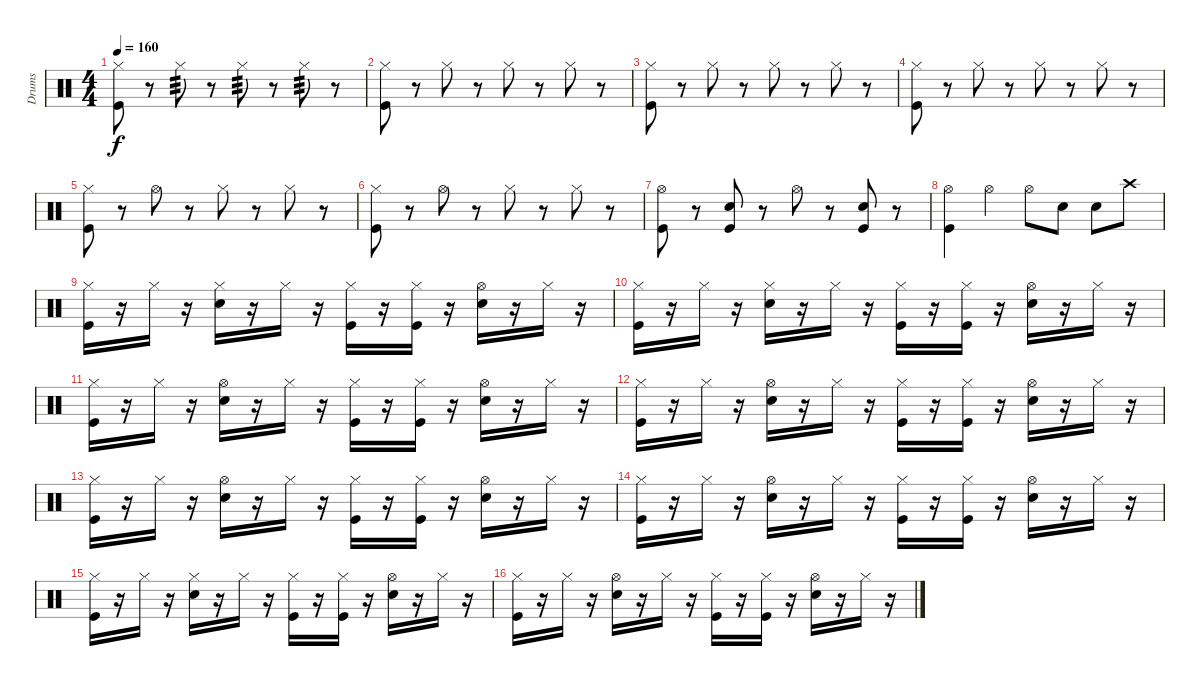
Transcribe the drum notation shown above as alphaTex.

\track ("Drums" "Drums") {instrument percussion}
\staff {score}
\articulation defaults
\ts (4 4)
\tempo 160
\clef neutral
\ks c
("Hi-Hat (closed)" "Kick (hit)").8{dy f} r.8 "Hi-Hat (closed)".8{tp 3} r.8 "Hi-Hat (closed)".8{tp 3} r.8 "Hi-Hat (closed)".8{tp 3} r.8 |
("Hi-Hat (closed)" "Kick (hit)").8 r.8 "Hi-Hat (closed)".8 r.8 "Hi-Hat (closed)".8 r.8 "Hi-Hat (closed)".8 r.8 |
("Hi-Hat (closed)" "Kick (hit)").8 r.8 "Hi-Hat (closed)".8 r.8 "Hi-Hat (closed)".8 r.8 "Hi-Hat (closed)".8 r.8 |
("Hi-Hat (closed)" "Kick (hit)").8 r.8 "Hi-Hat (closed)".8 r.8 "Hi-Hat (closed)".8 r.8 "Hi-Hat (closed)".8 r.8 |
("Hi-Hat (closed)" "Kick (hit)").8 r.8 "Hi-Hat (open)".8 r.8 "Hi-Hat (closed)".8 r.8 "Hi-Hat (closed)".8 r.8 |
("Hi-Hat (closed)" "Kick (hit)").8 r.8 "Hi-Hat (open)".8 r.8 "Hi-Hat (closed)".8 r.8 "Hi-Hat (closed)".8 r.8 |
("Hi-Hat (open)" "Kick (hit)").8 r.8 ("Snare (hit) 2" "Kick (hit)").8 r.8 "Hi-Hat (open)".8 r.8 ("Snare (hit) 2" "Kick (hit)").8 r.8 |
("Hi-Hat (open)" "Kick (hit)").4 "Hi-Hat (open)".4 "Hi-Hat (open)".8 "Snare (hit) 2".8 "Snare (hit) 2".8 "Crash high (hit)".8 |
("Hi-Hat (closed)" "Kick (hit)").16 r.16 "Hi-Hat (closed)".16 r.16 ("Hi-Hat (closed)" "Snare (hit) 2").16 r.16 "Hi-Hat (closed)".16 r.16 ("Hi-Hat (closed)" "Kick (hit)").16 r.16 ("Kick (hit)" "Hi-Hat (closed)").16 r.16 ("Hi-Hat (open)" "Snare (hit) 2").16 r.16 "Hi-Hat (closed)".16 r.16 |
("Hi-Hat (closed)" "Kick (hit)").16 r.16 "Hi-Hat (closed)".16 r.16 ("Hi-Hat (closed)" "Snare (hit) 2").16 r.16 "Hi-Hat (closed)".16 r.16 ("Hi-Hat (closed)" "Kick (hit)").16 r.16 ("Kick (hit)" "Hi-Hat (closed)").16 r.16 ("Hi-Hat (open)" "Snare (hit) 2").16 r.16 "Hi-Hat (closed)".16 r.16 |
("Hi-Hat (closed)" "Kick (hit)").16 r.16 "Hi-Hat (closed)".16 r.16 ("Hi-Hat (open)" "Snare (hit) 2").16 r.16 "Hi-Hat (closed)".16 r.16 ("Hi-Hat (closed)" "Kick (hit)").16 r.16 ("Kick (hit)" "Hi-Hat (closed)").16 r.16 ("Hi-Hat (open)" "Snare (hit) 2").16 r.16 "Hi-Hat (closed)".16 r.16 |
("Hi-Hat (closed)" "Kick (hit)").16 r.16 "Hi-Hat (closed)".16 r.16 ("Hi-Hat (open)" "Snare (hit) 2").16 r.16 "Hi-Hat (closed)".16 r.16 ("Hi-Hat (closed)" "Kick (hit)").16 r.16 ("Kick (hit)" "Hi-Hat (closed)").16 r.16 ("Hi-Hat (open)" "Snare (hit) 2").16 r.16 "Hi-Hat (closed)".16 r.16 |
("Hi-Hat (closed)" "Kick (hit)").16 r.16 "Hi-Hat (closed)".16 r.16 ("Hi-Hat (open)" "Snare (hit) 2").16 r.16 "Hi-Hat (closed)".16 r.16 ("Hi-Hat (closed)" "Kick (hit)").16 r.16 ("Kick (hit)" "Hi-Hat (closed)").16 r.16 ("Hi-Hat (open)" "Snare (hit) 2").16 r.16 "Hi-Hat (closed)".16 r.16 |
("Hi-Hat (closed)" "Kick (hit)").16 r.16 "Hi-Hat (closed)".16 r.16 ("Hi-Hat (open)" "Snare (hit) 2").16 r.16 "Hi-Hat (closed)".16 r.16 ("Hi-Hat (closed)" "Kick (hit)").16 r.16 ("Kick (hit)" "Hi-Hat (closed)").16 r.16 ("Hi-Hat (open)" "Snare (hit) 2").16 r.16 "Hi-Hat (closed)".16 r.16 |
("Hi-Hat (closed)" "Kick (hit)").16 r.16 "Hi-Hat (closed)".16 r.16 ("Hi-Hat (closed)" "Snare (hit) 2").16 r.16 "Hi-Hat (closed)".16 r.16 ("Hi-Hat (closed)" "Kick (hit)").16 r.16 ("Kick (hit)" "Hi-Hat (closed)").16 r.16 ("Hi-Hat (open)" "Snare (hit) 2").16 r.16 "Hi-Hat (closed)".16 r.16 |
("Hi-Hat (closed)" "Kick (hit)").16 r.16 "Hi-Hat (closed)".16 r.16 ("Hi-Hat (open)" "Snare (hit) 2").16 r.16 "Hi-Hat (closed)".16 r.16 ("Hi-Hat (closed)" "Kick (hit)").16 r.16 ("Kick (hit)" "Hi-Hat (closed)").16 r.16 ("Hi-Hat (open)" "Snare (hit) 2").16 r.16 "Hi-Hat (closed)".16 r.16
